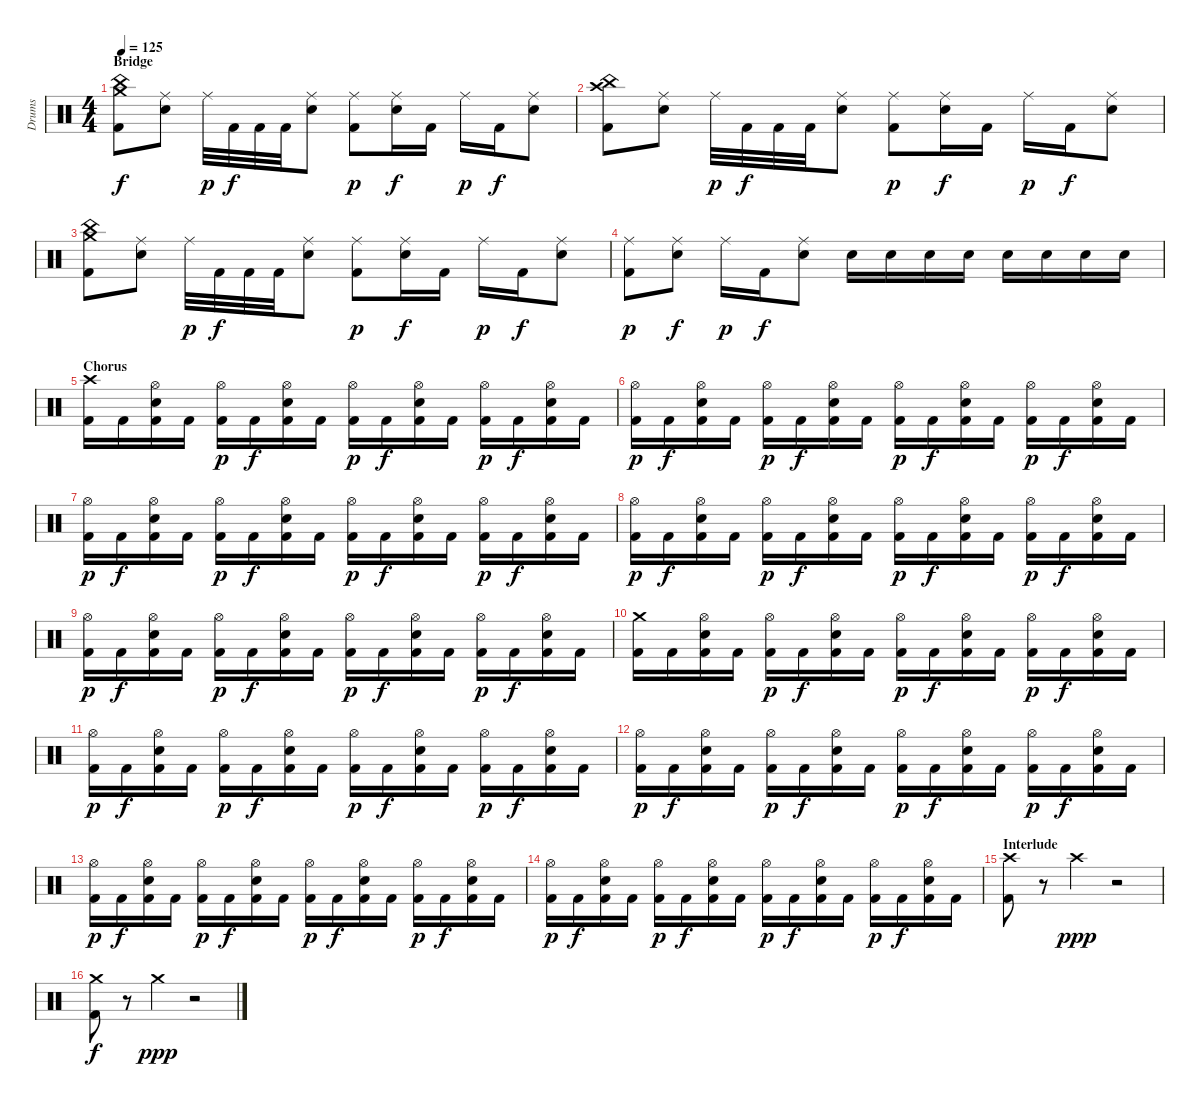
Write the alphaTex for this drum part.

\track ("Drums" "Drums") {instrument percussion}
\staff {score}
\articulation defaults
\ts (4 4)
\section ("" "Bridge")
\tempo 125
\clef neutral
\ks c
("Crash medium (hit)" "China (hit)" "Kick (hit) 2").8{dy f} ("Ride (middle)" "Snare (hit) 2").8 "Ride (middle)".32{dy p} "Kick (hit) 2".32{dy f} "Kick (hit) 2".32 "Kick (hit) 2".32 ("Ride (middle)" "Snare (hit) 2").8 ("Ride (middle)" "Kick (hit) 2").8{dy p} ("Ride (middle)" "Snare (hit) 2").16{dy f} "Kick (hit) 2".16 "Ride (middle)".16{dy p} "Kick (hit) 2".16{dy f} ("Ride (middle)" "Snare (hit) 2").8 |
("Crash high (hit)" "China (hit)" "Kick (hit) 2").8 ("Ride (middle)" "Snare (hit) 2").8 "Ride (middle)".32{dy p} "Kick (hit) 2".32{dy f} "Kick (hit) 2".32 "Kick (hit) 2".32 ("Ride (middle)" "Snare (hit) 2").8 ("Ride (middle)" "Kick (hit) 2").8{dy p} ("Ride (middle)" "Snare (hit) 2").16{dy f} "Kick (hit) 2".16 "Ride (middle)".16{dy p} "Kick (hit) 2".16{dy f} ("Ride (middle)" "Snare (hit) 2").8 |
("Crash medium (hit)" "China (hit)" "Kick (hit) 2").8 ("Ride (middle)" "Snare (hit) 2").8 "Ride (middle)".32{dy p} "Kick (hit) 2".32{dy f} "Kick (hit) 2".32 "Kick (hit) 2".32 ("Ride (middle)" "Snare (hit) 2").8 ("Ride (middle)" "Kick (hit) 2").8{dy p} ("Ride (middle)" "Snare (hit) 2").16{dy f} "Kick (hit) 2".16 "Ride (middle)".16{dy p} "Kick (hit) 2".16{dy f} ("Ride (middle)" "Snare (hit) 2").8 |
("Ride (middle)" "Kick (hit) 2").8{dy p} ("Ride (middle)" "Snare (hit) 2").8{dy f} "Ride (middle)".16{dy p} "Kick (hit) 2".16{dy f} ("Ride (middle)" "Snare (hit) 2").8 "Snare (hit) 2".16 "Snare (hit) 2".16 "Snare (hit) 2".16 "Snare (hit) 2".16 "Snare (hit) 2".16 "Snare (hit) 2".16 "Snare (hit) 2".16 "Snare (hit) 2".16 |
\section ("" "Chorus")
("Crash high (hit)" "Kick (hit) 2").16 "Kick (hit) 2".16 ("Hi-Hat (open)" "Snare (hit) 2" "Kick (hit) 2").16 "Kick (hit) 2".16 ("Hi-Hat (open)" "Kick (hit) 2").16{dy p} "Kick (hit) 2".16{dy f} ("Hi-Hat (open)" "Snare (hit) 2" "Kick (hit) 2").16 "Kick (hit) 2".16 ("Hi-Hat (open)" "Kick (hit) 2").16{dy p} "Kick (hit) 2".16{dy f} ("Hi-Hat (open)" "Snare (hit) 2" "Kick (hit) 2").16 "Kick (hit) 2".16 ("Hi-Hat (open)" "Kick (hit) 2").16{dy p} "Kick (hit) 2".16{dy f} ("Hi-Hat (open)" "Snare (hit) 2" "Kick (hit) 2").16 "Kick (hit) 2".16 |
("Hi-Hat (open)" "Kick (hit) 2").16{dy p} "Kick (hit) 2".16{dy f} ("Hi-Hat (open)" "Snare (hit) 2" "Kick (hit) 2").16 "Kick (hit) 2".16 ("Hi-Hat (open)" "Kick (hit) 2").16{dy p} "Kick (hit) 2".16{dy f} ("Hi-Hat (open)" "Snare (hit) 2" "Kick (hit) 2").16 "Kick (hit) 2".16 ("Hi-Hat (open)" "Kick (hit) 2").16{dy p} "Kick (hit) 2".16{dy f} ("Hi-Hat (open)" "Snare (hit) 2" "Kick (hit) 2").16 "Kick (hit) 2".16 ("Hi-Hat (open)" "Kick (hit) 2").16{dy p} "Kick (hit) 2".16{dy f} ("Hi-Hat (open)" "Snare (hit) 2" "Kick (hit) 2").16 "Kick (hit) 2".16 |
("Hi-Hat (open)" "Kick (hit) 2").16{dy p} "Kick (hit) 2".16{dy f} ("Hi-Hat (open)" "Snare (hit) 2" "Kick (hit) 2").16 "Kick (hit) 2".16 ("Hi-Hat (open)" "Kick (hit) 2").16{dy p} "Kick (hit) 2".16{dy f} ("Hi-Hat (open)" "Snare (hit) 2" "Kick (hit) 2").16 "Kick (hit) 2".16 ("Hi-Hat (open)" "Kick (hit) 2").16{dy p} "Kick (hit) 2".16{dy f} ("Hi-Hat (open)" "Snare (hit) 2" "Kick (hit) 2").16 "Kick (hit) 2".16 ("Hi-Hat (open)" "Kick (hit) 2").16{dy p} "Kick (hit) 2".16{dy f} ("Hi-Hat (open)" "Snare (hit) 2" "Kick (hit) 2").16 "Kick (hit) 2".16 |
("Hi-Hat (open)" "Kick (hit) 2").16{dy p} "Kick (hit) 2".16{dy f} ("Hi-Hat (open)" "Snare (hit) 2" "Kick (hit) 2").16 "Kick (hit) 2".16 ("Hi-Hat (open)" "Kick (hit) 2").16{dy p} "Kick (hit) 2".16{dy f} ("Hi-Hat (open)" "Snare (hit) 2" "Kick (hit) 2").16 "Kick (hit) 2".16 ("Hi-Hat (open)" "Kick (hit) 2").16{dy p} "Kick (hit) 2".16{dy f} ("Hi-Hat (open)" "Snare (hit) 2" "Kick (hit) 2").16 "Kick (hit) 2".16 ("Hi-Hat (open)" "Kick (hit) 2").16{dy p} "Kick (hit) 2".16{dy f} ("Hi-Hat (open)" "Snare (hit) 2" "Kick (hit) 2").16 "Kick (hit) 2".16 |
("Hi-Hat (open)" "Kick (hit) 2").16{dy p} "Kick (hit) 2".16{dy f} ("Hi-Hat (open)" "Snare (hit) 2" "Kick (hit) 2").16 "Kick (hit) 2".16 ("Hi-Hat (open)" "Kick (hit) 2").16{dy p} "Kick (hit) 2".16{dy f} ("Hi-Hat (open)" "Snare (hit) 2" "Kick (hit) 2").16 "Kick (hit) 2".16 ("Hi-Hat (open)" "Kick (hit) 2").16{dy p} "Kick (hit) 2".16{dy f} ("Hi-Hat (open)" "Snare (hit) 2" "Kick (hit) 2").16 "Kick (hit) 2".16 ("Hi-Hat (open)" "Kick (hit) 2").16{dy p} "Kick (hit) 2".16{dy f} ("Hi-Hat (open)" "Snare (hit) 2" "Kick (hit) 2").16 "Kick (hit) 2".16 |
("Crash medium (hit)" "Kick (hit) 2").16 "Kick (hit) 2".16 ("Hi-Hat (open)" "Snare (hit) 2" "Kick (hit) 2").16 "Kick (hit) 2".16 ("Hi-Hat (open)" "Kick (hit) 2").16{dy p} "Kick (hit) 2".16{dy f} ("Hi-Hat (open)" "Snare (hit) 2" "Kick (hit) 2").16 "Kick (hit) 2".16 ("Hi-Hat (open)" "Kick (hit) 2").16{dy p} "Kick (hit) 2".16{dy f} ("Hi-Hat (open)" "Snare (hit) 2" "Kick (hit) 2").16 "Kick (hit) 2".16 ("Hi-Hat (open)" "Kick (hit) 2").16{dy p} "Kick (hit) 2".16{dy f} ("Hi-Hat (open)" "Snare (hit) 2" "Kick (hit) 2").16 "Kick (hit) 2".16 |
("Hi-Hat (open)" "Kick (hit) 2").16{dy p} "Kick (hit) 2".16{dy f} ("Hi-Hat (open)" "Snare (hit) 2" "Kick (hit) 2").16 "Kick (hit) 2".16 ("Hi-Hat (open)" "Kick (hit) 2").16{dy p} "Kick (hit) 2".16{dy f} ("Hi-Hat (open)" "Snare (hit) 2" "Kick (hit) 2").16 "Kick (hit) 2".16 ("Hi-Hat (open)" "Kick (hit) 2").16{dy p} "Kick (hit) 2".16{dy f} ("Hi-Hat (open)" "Snare (hit) 2" "Kick (hit) 2").16 "Kick (hit) 2".16 ("Hi-Hat (open)" "Kick (hit) 2").16{dy p} "Kick (hit) 2".16{dy f} ("Hi-Hat (open)" "Snare (hit) 2" "Kick (hit) 2").16 "Kick (hit) 2".16 |
("Hi-Hat (open)" "Kick (hit) 2").16{dy p} "Kick (hit) 2".16{dy f} ("Hi-Hat (open)" "Snare (hit) 2" "Kick (hit) 2").16 "Kick (hit) 2".16 ("Hi-Hat (open)" "Kick (hit) 2").16{dy p} "Kick (hit) 2".16{dy f} ("Hi-Hat (open)" "Snare (hit) 2" "Kick (hit) 2").16 "Kick (hit) 2".16 ("Hi-Hat (open)" "Kick (hit) 2").16{dy p} "Kick (hit) 2".16{dy f} ("Hi-Hat (open)" "Snare (hit) 2" "Kick (hit) 2").16 "Kick (hit) 2".16 ("Hi-Hat (open)" "Kick (hit) 2").16{dy p} "Kick (hit) 2".16{dy f} ("Hi-Hat (open)" "Snare (hit) 2" "Kick (hit) 2").16 "Kick (hit) 2".16 |
("Hi-Hat (open)" "Kick (hit) 2").16{dy p} "Kick (hit) 2".16{dy f} ("Hi-Hat (open)" "Snare (hit) 2" "Kick (hit) 2").16 "Kick (hit) 2".16 ("Hi-Hat (open)" "Kick (hit) 2").16{dy p} "Kick (hit) 2".16{dy f} ("Hi-Hat (open)" "Snare (hit) 2" "Kick (hit) 2").16 "Kick (hit) 2".16 ("Hi-Hat (open)" "Kick (hit) 2").16{dy p} "Kick (hit) 2".16{dy f} ("Hi-Hat (open)" "Snare (hit) 2" "Kick (hit) 2").16 "Kick (hit) 2".16 ("Hi-Hat (open)" "Kick (hit) 2").16{dy p} "Kick (hit) 2".16{dy f} ("Hi-Hat (open)" "Snare (hit) 2" "Kick (hit) 2").16 "Kick (hit) 2".16 |
("Hi-Hat (open)" "Kick (hit) 2").16{dy p} "Kick (hit) 2".16{dy f} ("Hi-Hat (open)" "Snare (hit) 2" "Kick (hit) 2").16 "Kick (hit) 2".16 ("Hi-Hat (open)" "Kick (hit) 2").16{dy p} "Kick (hit) 2".16{dy f} ("Hi-Hat (open)" "Snare (hit) 2" "Kick (hit) 2").16 "Kick (hit) 2".16 ("Hi-Hat (open)" "Kick (hit) 2").16{dy p} "Kick (hit) 2".16{dy f} ("Hi-Hat (open)" "Snare (hit) 2" "Kick (hit) 2").16 "Kick (hit) 2".16 ("Hi-Hat (open)" "Kick (hit) 2").16{dy p} "Kick (hit) 2".16{dy f} ("Hi-Hat (open)" "Snare (hit) 2" "Kick (hit) 2").16 "Kick (hit) 2".16 |
\section ("" "Interlude")
("Crash high (hit)" "Kick (hit) 2").8 r.8 "Crash high (hit)".4{dy ppp} r.2 |
("Crash medium (hit)" "Kick (hit) 2").8{dy f} r.8 "Crash medium (hit)".4{dy ppp} r.2
